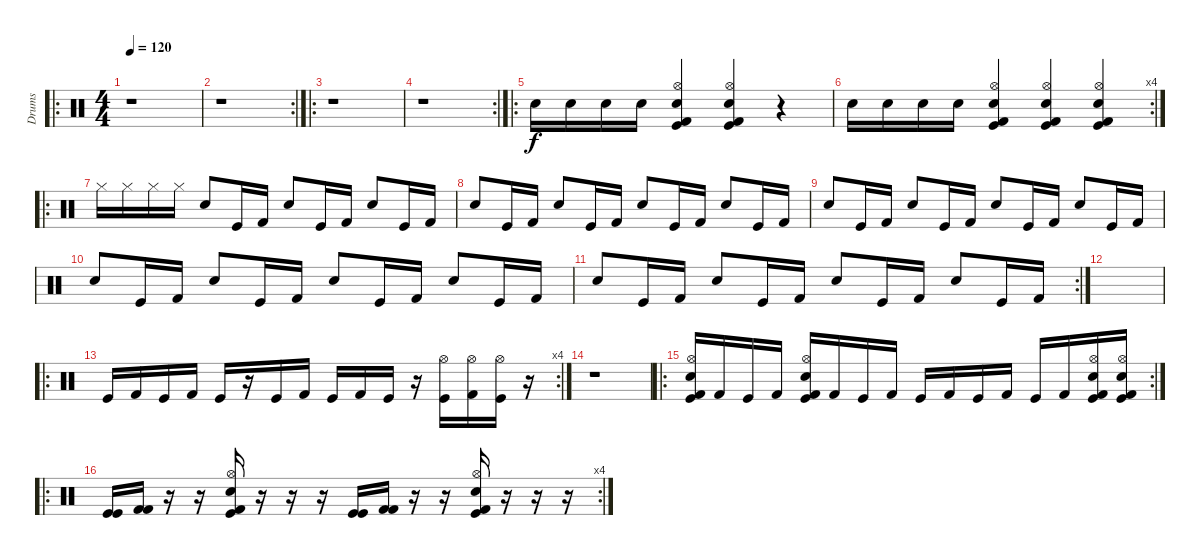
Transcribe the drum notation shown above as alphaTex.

\track ("Drums" "Drums") {instrument percussion}
\staff {score}
\articulation defaults
\ro
\ts (4 4)
\tempo 120
\clef neutral
\ks c
r.1{dy f} |
\rc 2
r.1 |
\ro
r.1 |
\rc 2
r.1 |
\ro "Snare (hit) 2".16 "Snare (hit) 2".16 "Snare (hit) 2".16 "Snare (hit) 2".16
("Hi-Hat (open)" "Snare (hit) 2" "Kick (hit) 2" "Kick (hit)").4 ("Hi-Hat (open)" "Snare (hit) 2" "Kick (hit) 2" "Kick (hit)").4 r.4 |
\rc 4 "Snare (hit) 2".16 "Snare (hit) 2".16 "Snare (hit) 2".16 "Snare (hit) 2".16
("Hi-Hat (open)" "Snare (hit) 2" "Kick (hit) 2" "Kick (hit)").4 ("Hi-Hat (open)" "Snare (hit) 2" "Kick (hit) 2" "Kick (hit)").4 ("Hi-Hat (open)" "Snare (hit) 2" "Kick (hit) 2" "Kick (hit)").4 |
\ro "Hi-Hat (closed)".16 "Hi-Hat (closed)".16 "Hi-Hat (closed)".16 "Hi-Hat (closed)".16 "Snare (hit) 2".8 "Kick (hit)".16 "Kick (hit) 2".16 "Snare (hit) 2".8 "Kick (hit)".16 "Kick (hit) 2".16 "Snare (hit) 2".8 "Kick (hit)".16 "Kick (hit) 2".16
|
"Snare (hit) 2".8 "Kick (hit)".16 "Kick (hit) 2".16 "Snare (hit) 2".8 "Kick (hit)".16 "Kick (hit) 2".16 "Snare (hit) 2".8 "Kick (hit)".16 "Kick (hit) 2".16 "Snare (hit) 2".8 "Kick (hit)".16 "Kick (hit) 2".16 |
"Snare (hit) 2".8 "Kick (hit)".16 "Kick (hit) 2".16 "Snare (hit) 2".8 "Kick (hit)".16 "Kick (hit) 2".16 "Snare (hit) 2".8 "Kick (hit)".16 "Kick (hit) 2".16 "Snare (hit) 2".8 "Kick (hit)".16 "Kick (hit) 2".16 |
"Snare (hit) 2".8 "Kick (hit)".16 "Kick (hit) 2".16 "Snare (hit) 2".8 "Kick (hit)".16 "Kick (hit) 2".16 "Snare (hit) 2".8 "Kick (hit)".16 "Kick (hit) 2".16 "Snare (hit) 2".8 "Kick (hit)".16 "Kick (hit) 2".16 |
\rc 2 "Snare (hit) 2".8 "Kick (hit)".16 "Kick (hit) 2".16 "Snare (hit) 2".8 "Kick (hit)".16 "Kick (hit) 2".16 "Snare (hit) 2".8 "Kick (hit)".16 "Kick (hit) 2".16 "Snare (hit) 2".8 "Kick (hit)".16 "Kick (hit) 2".16
|
|
\ro
\rc 4 "Kick (hit)".16 "Kick (hit) 2".16 "Kick (hit)".16 "Kick (hit) 2".16 "Kick (hit)".16
r.16 "Kick (hit)".16 "Kick (hit) 2".16 "Kick (hit)".16 "Kick (hit) 2".16 "Kick (hit)".16 r.16 ("Hi-Hat (open)" "Kick (hit)").16 ("Hi-Hat (open)" "Kick (hit) 2").16 ("Hi-Hat (open)" "Kick (hit)").16 r.16 |
r.1 |
\ro
\rc 2
("Hi-Hat (open)" "Snare (hit) 2" "Kick (hit) 2" "Kick (hit)").16 "Kick (hit) 2".16 "Kick (hit)".16 "Kick (hit) 2".16 ("Hi-Hat (open)" "Snare (hit) 2" "Kick (hit) 2" "Kick (hit)").16 "Kick (hit) 2".16 "Kick (hit)".16 "Kick (hit) 2".16 "Kick (hit)".16 "Kick (hit) 2".16 "Kick (hit)".16 "Kick (hit) 2".16 "Kick (hit)".16 "Kick (hit) 2".16 ("Hi-Hat (open)" "Snare (hit) 2" "Kick (hit) 2" "Kick (hit)").16 ("Hi-Hat (open)" "Snare (hit) 2" "Kick (hit)" "Kick (hit) 2").16 |
\ro
\rc 4
("Kick (hit)" "Kick (hit)").16 ("Kick (hit) 2" "Kick (hit) 2").16 r.16 r.16 ("Hi-Hat (open)" "Snare (hit) 2" "Kick (hit)" "Kick (hit) 2").16 r.16 r.16 r.16 ("Kick (hit)" "Kick (hit)").16 ("Kick (hit) 2" "Kick (hit) 2").16 r.16 r.16 ("Hi-Hat (open)" "Snare (hit) 2" "Kick (hit)" "Kick (hit) 2").16 r.16 r.16 r.16
